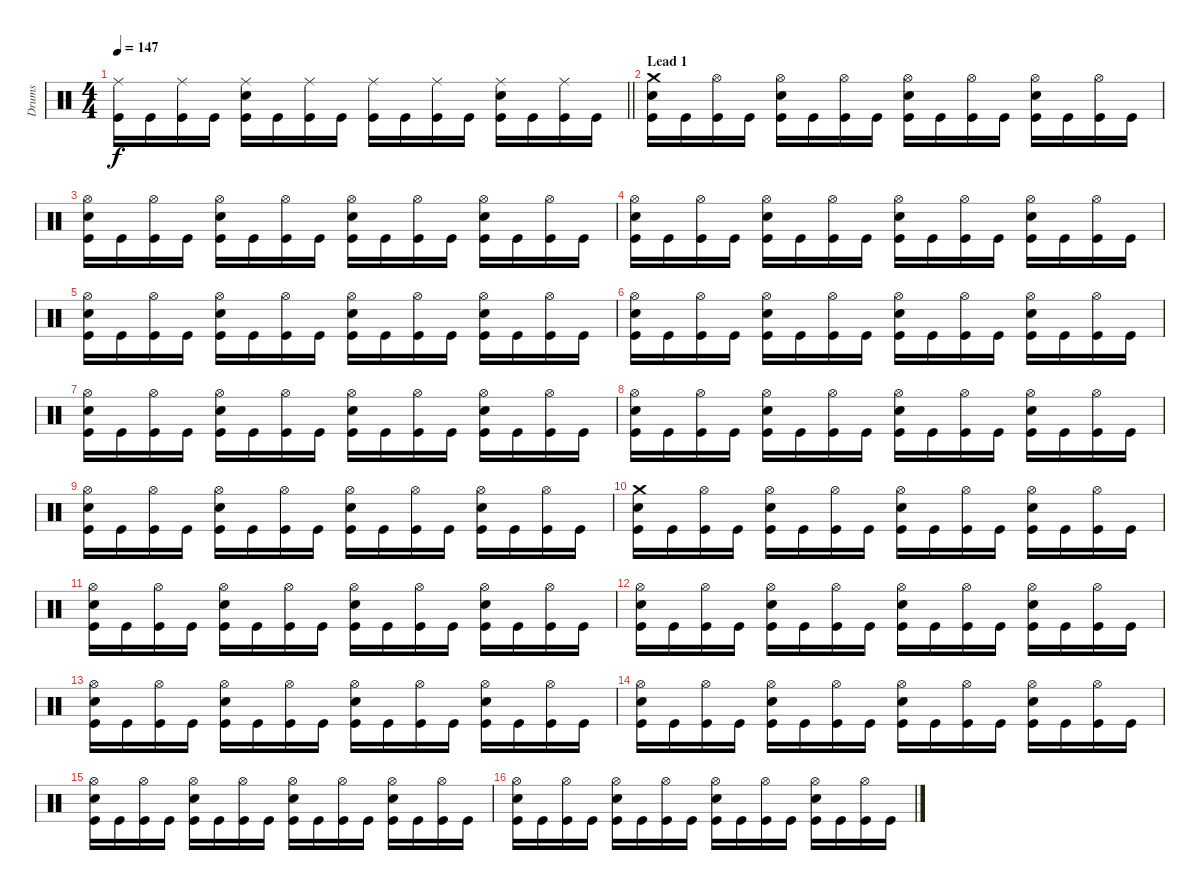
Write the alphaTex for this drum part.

\track ("Drums" "Drums") {instrument percussion}
\staff {score}
\articulation defaults
\ts (4 4)
\tempo 147
\clef neutral
\barLineRight lightlight
\ks c
("Ride (middle)" "Kick (hit)").16{dy f} "Kick (hit)".16 ("Ride (middle)" "Kick (hit)").16 "Kick (hit)".16 ("Electric Snare (hit)" "Ride (middle)" "Kick (hit)").16 "Kick (hit)".16 ("Ride (middle)" "Kick (hit)").16 "Kick (hit)".16 ("Ride (middle)" "Kick (hit)").16 "Kick (hit)".16 ("Ride (middle)" "Kick (hit)").16 "Kick (hit)".16 ("Electric Snare (hit)" "Ride (middle)" "Kick (hit)").16 "Kick (hit)".16 ("Ride (middle)" "Kick (hit)").16 "Kick (hit)".16 |
\section ("" "Lead 1")
("Electric Snare (hit)" "Crash medium (hit)" "Kick (hit)").16 "Kick (hit)".16 ("Hi-Hat (open)" "Kick (hit)").16 "Kick (hit)".16 ("Electric Snare (hit)" "Hi-Hat (open)" "Kick (hit)").16 "Kick (hit)".16 ("Hi-Hat (open)" "Kick (hit)").16 "Kick (hit)".16 ("Electric Snare (hit)" "Hi-Hat (open)" "Kick (hit)").16 "Kick (hit)".16 ("Hi-Hat (open)" "Kick (hit)").16 "Kick (hit)".16 ("Electric Snare (hit)" "Hi-Hat (open)" "Kick (hit)").16 "Kick (hit)".16 ("Hi-Hat (open)" "Kick (hit)").16 "Kick (hit)".16 |
("Electric Snare (hit)" "Hi-Hat (open)" "Kick (hit)").16 "Kick (hit)".16 ("Hi-Hat (open)" "Kick (hit)").16 "Kick (hit)".16 ("Electric Snare (hit)" "Hi-Hat (open)" "Kick (hit)").16 "Kick (hit)".16 ("Hi-Hat (open)" "Kick (hit)").16 "Kick (hit)".16 ("Electric Snare (hit)" "Hi-Hat (open)" "Kick (hit)").16 "Kick (hit)".16 ("Hi-Hat (open)" "Kick (hit)").16 "Kick (hit)".16 ("Electric Snare (hit)" "Hi-Hat (open)" "Kick (hit)").16 "Kick (hit)".16 ("Hi-Hat (open)" "Kick (hit)").16 "Kick (hit)".16 |
("Electric Snare (hit)" "Hi-Hat (open)" "Kick (hit)").16 "Kick (hit)".16 ("Hi-Hat (open)" "Kick (hit)").16 "Kick (hit)".16 ("Electric Snare (hit)" "Hi-Hat (open)" "Kick (hit)").16 "Kick (hit)".16 ("Hi-Hat (open)" "Kick (hit)").16 "Kick (hit)".16 ("Electric Snare (hit)" "Hi-Hat (open)" "Kick (hit)").16 "Kick (hit)".16 ("Hi-Hat (open)" "Kick (hit)").16 "Kick (hit)".16 ("Electric Snare (hit)" "Hi-Hat (open)" "Kick (hit)").16 "Kick (hit)".16 ("Hi-Hat (open)" "Kick (hit)").16 "Kick (hit)".16 |
("Electric Snare (hit)" "Hi-Hat (open)" "Kick (hit)").16 "Kick (hit)".16 ("Hi-Hat (open)" "Kick (hit)").16 "Kick (hit)".16 ("Electric Snare (hit)" "Hi-Hat (open)" "Kick (hit)").16 "Kick (hit)".16 ("Hi-Hat (open)" "Kick (hit)").16 "Kick (hit)".16 ("Electric Snare (hit)" "Hi-Hat (open)" "Kick (hit)").16 "Kick (hit)".16 ("Hi-Hat (open)" "Kick (hit)").16 "Kick (hit)".16 ("Electric Snare (hit)" "Hi-Hat (open)" "Kick (hit)").16 "Kick (hit)".16 ("Hi-Hat (open)" "Kick (hit)").16 "Kick (hit)".16 |
("Electric Snare (hit)" "Hi-Hat (open)" "Kick (hit)").16 "Kick (hit)".16 ("Hi-Hat (open)" "Kick (hit)").16 "Kick (hit)".16 ("Electric Snare (hit)" "Hi-Hat (open)" "Kick (hit)").16 "Kick (hit)".16 ("Hi-Hat (open)" "Kick (hit)").16 "Kick (hit)".16 ("Electric Snare (hit)" "Hi-Hat (open)" "Kick (hit)").16 "Kick (hit)".16 ("Hi-Hat (open)" "Kick (hit)").16 "Kick (hit)".16 ("Electric Snare (hit)" "Hi-Hat (open)" "Kick (hit)").16 "Kick (hit)".16 ("Hi-Hat (open)" "Kick (hit)").16 "Kick (hit)".16 |
("Electric Snare (hit)" "Hi-Hat (open)" "Kick (hit)").16 "Kick (hit)".16 ("Hi-Hat (open)" "Kick (hit)").16 "Kick (hit)".16 ("Electric Snare (hit)" "Hi-Hat (open)" "Kick (hit)").16 "Kick (hit)".16 ("Hi-Hat (open)" "Kick (hit)").16 "Kick (hit)".16 ("Electric Snare (hit)" "Hi-Hat (open)" "Kick (hit)").16 "Kick (hit)".16 ("Hi-Hat (open)" "Kick (hit)").16 "Kick (hit)".16 ("Electric Snare (hit)" "Hi-Hat (open)" "Kick (hit)").16 "Kick (hit)".16 ("Hi-Hat (open)" "Kick (hit)").16 "Kick (hit)".16 |
("Electric Snare (hit)" "Hi-Hat (open)" "Kick (hit)").16 "Kick (hit)".16 ("Hi-Hat (open)" "Kick (hit)").16 "Kick (hit)".16 ("Electric Snare (hit)" "Hi-Hat (open)" "Kick (hit)").16 "Kick (hit)".16 ("Hi-Hat (open)" "Kick (hit)").16 "Kick (hit)".16 ("Electric Snare (hit)" "Hi-Hat (open)" "Kick (hit)").16 "Kick (hit)".16 ("Hi-Hat (open)" "Kick (hit)").16 "Kick (hit)".16 ("Electric Snare (hit)" "Hi-Hat (open)" "Kick (hit)").16 "Kick (hit)".16 ("Hi-Hat (open)" "Kick (hit)").16 "Kick (hit)".16 |
("Electric Snare (hit)" "Hi-Hat (open)" "Kick (hit)").16 "Kick (hit)".16 ("Hi-Hat (open)" "Kick (hit)").16 "Kick (hit)".16 ("Electric Snare (hit)" "Hi-Hat (open)" "Kick (hit)").16 "Kick (hit)".16 ("Hi-Hat (open)" "Kick (hit)").16 "Kick (hit)".16 ("Electric Snare (hit)" "Hi-Hat (open)" "Kick (hit)").16 "Kick (hit)".16 ("Hi-Hat (open)" "Kick (hit)").16 "Kick (hit)".16 ("Electric Snare (hit)" "Hi-Hat (open)" "Kick (hit)").16 "Kick (hit)".16 ("Hi-Hat (open)" "Kick (hit)").16 "Kick (hit)".16 |
("Electric Snare (hit)" "Crash medium (hit)" "Kick (hit)").16 "Kick (hit)".16 ("Hi-Hat (open)" "Kick (hit)").16 "Kick (hit)".16 ("Electric Snare (hit)" "Hi-Hat (open)" "Kick (hit)").16 "Kick (hit)".16 ("Hi-Hat (open)" "Kick (hit)").16 "Kick (hit)".16 ("Electric Snare (hit)" "Hi-Hat (open)" "Kick (hit)").16 "Kick (hit)".16 ("Hi-Hat (open)" "Kick (hit)").16 "Kick (hit)".16 ("Electric Snare (hit)" "Hi-Hat (open)" "Kick (hit)").16 "Kick (hit)".16 ("Hi-Hat (open)" "Kick (hit)").16 "Kick (hit)".16 |
("Electric Snare (hit)" "Hi-Hat (open)" "Kick (hit)").16 "Kick (hit)".16 ("Hi-Hat (open)" "Kick (hit)").16 "Kick (hit)".16 ("Electric Snare (hit)" "Hi-Hat (open)" "Kick (hit)").16 "Kick (hit)".16 ("Hi-Hat (open)" "Kick (hit)").16 "Kick (hit)".16 ("Electric Snare (hit)" "Hi-Hat (open)" "Kick (hit)").16 "Kick (hit)".16 ("Hi-Hat (open)" "Kick (hit)").16 "Kick (hit)".16 ("Electric Snare (hit)" "Hi-Hat (open)" "Kick (hit)").16 "Kick (hit)".16 ("Hi-Hat (open)" "Kick (hit)").16 "Kick (hit)".16 |
("Electric Snare (hit)" "Hi-Hat (open)" "Kick (hit)").16 "Kick (hit)".16 ("Hi-Hat (open)" "Kick (hit)").16 "Kick (hit)".16 ("Electric Snare (hit)" "Hi-Hat (open)" "Kick (hit)").16 "Kick (hit)".16 ("Hi-Hat (open)" "Kick (hit)").16 "Kick (hit)".16 ("Electric Snare (hit)" "Hi-Hat (open)" "Kick (hit)").16 "Kick (hit)".16 ("Hi-Hat (open)" "Kick (hit)").16 "Kick (hit)".16 ("Electric Snare (hit)" "Hi-Hat (open)" "Kick (hit)").16 "Kick (hit)".16 ("Hi-Hat (open)" "Kick (hit)").16 "Kick (hit)".16 |
("Electric Snare (hit)" "Hi-Hat (open)" "Kick (hit)").16 "Kick (hit)".16 ("Hi-Hat (open)" "Kick (hit)").16 "Kick (hit)".16 ("Electric Snare (hit)" "Hi-Hat (open)" "Kick (hit)").16 "Kick (hit)".16 ("Hi-Hat (open)" "Kick (hit)").16 "Kick (hit)".16 ("Electric Snare (hit)" "Hi-Hat (open)" "Kick (hit)").16 "Kick (hit)".16 ("Hi-Hat (open)" "Kick (hit)").16 "Kick (hit)".16 ("Electric Snare (hit)" "Hi-Hat (open)" "Kick (hit)").16 "Kick (hit)".16 ("Hi-Hat (open)" "Kick (hit)").16 "Kick (hit)".16 |
("Electric Snare (hit)" "Hi-Hat (open)" "Kick (hit)").16 "Kick (hit)".16 ("Hi-Hat (open)" "Kick (hit)").16 "Kick (hit)".16 ("Electric Snare (hit)" "Hi-Hat (open)" "Kick (hit)").16 "Kick (hit)".16 ("Hi-Hat (open)" "Kick (hit)").16 "Kick (hit)".16 ("Electric Snare (hit)" "Hi-Hat (open)" "Kick (hit)").16 "Kick (hit)".16 ("Hi-Hat (open)" "Kick (hit)").16 "Kick (hit)".16 ("Electric Snare (hit)" "Hi-Hat (open)" "Kick (hit)").16 "Kick (hit)".16 ("Hi-Hat (open)" "Kick (hit)").16 "Kick (hit)".16 |
("Electric Snare (hit)" "Hi-Hat (open)" "Kick (hit)").16 "Kick (hit)".16 ("Hi-Hat (open)" "Kick (hit)").16 "Kick (hit)".16 ("Electric Snare (hit)" "Hi-Hat (open)" "Kick (hit)").16 "Kick (hit)".16 ("Hi-Hat (open)" "Kick (hit)").16 "Kick (hit)".16 ("Electric Snare (hit)" "Hi-Hat (open)" "Kick (hit)").16 "Kick (hit)".16 ("Hi-Hat (open)" "Kick (hit)").16 "Kick (hit)".16 ("Electric Snare (hit)" "Hi-Hat (open)" "Kick (hit)").16 "Kick (hit)".16 ("Hi-Hat (open)" "Kick (hit)").16 "Kick (hit)".16 |
("Electric Snare (hit)" "Hi-Hat (open)" "Kick (hit)").16 "Kick (hit)".16 ("Hi-Hat (open)" "Kick (hit)").16 "Kick (hit)".16 ("Electric Snare (hit)" "Hi-Hat (open)" "Kick (hit)").16 "Kick (hit)".16 ("Hi-Hat (open)" "Kick (hit)").16 "Kick (hit)".16 ("Electric Snare (hit)" "Hi-Hat (open)" "Kick (hit)").16 "Kick (hit)".16 ("Hi-Hat (open)" "Kick (hit)").16 "Kick (hit)".16 ("Electric Snare (hit)" "Hi-Hat (open)" "Kick (hit)").16 "Kick (hit)".16 ("Hi-Hat (open)" "Kick (hit)").16 "Kick (hit)".16
